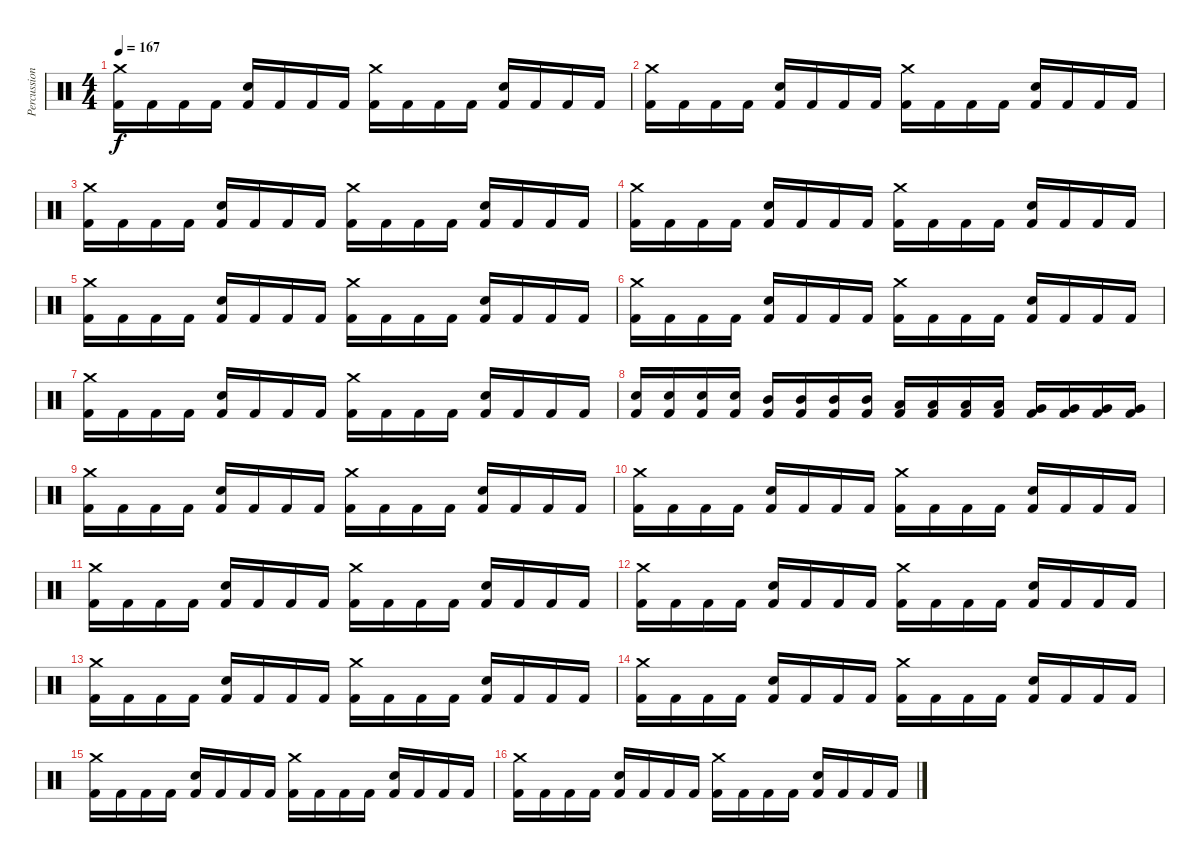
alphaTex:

\track ("Percussion" "Percussion") {instrument percussion}
\staff {score}
\articulation defaults
\ts (4 4)
\tempo 167
\clef neutral
\ks c
("Crash medium (hit)" "Kick (hit) 2").16{dy f} "Kick (hit) 2".16 "Kick (hit) 2".16 "Kick (hit) 2".16 ("Snare (hit) 2" "Kick (hit) 2").16 "Kick (hit) 2".16 "Kick (hit) 2".16 "Kick (hit) 2".16 ("Crash medium (hit)" "Kick (hit) 2").16 "Kick (hit) 2".16 "Kick (hit) 2".16 "Kick (hit) 2".16 ("Snare (hit) 2" "Kick (hit) 2").16 "Kick (hit) 2".16 "Kick (hit) 2".16 "Kick (hit) 2".16 |
("Crash medium (hit)" "Kick (hit) 2").16 "Kick (hit) 2".16 "Kick (hit) 2".16 "Kick (hit) 2".16 ("Snare (hit) 2" "Kick (hit) 2").16 "Kick (hit) 2".16 "Kick (hit) 2".16 "Kick (hit) 2".16 ("Crash medium (hit)" "Kick (hit) 2").16 "Kick (hit) 2".16 "Kick (hit) 2".16 "Kick (hit) 2".16 ("Snare (hit) 2" "Kick (hit) 2").16 "Kick (hit) 2".16 "Kick (hit) 2".16 "Kick (hit) 2".16 |
("Crash medium (hit)" "Kick (hit) 2").16 "Kick (hit) 2".16 "Kick (hit) 2".16 "Kick (hit) 2".16 ("Snare (hit) 2" "Kick (hit) 2").16 "Kick (hit) 2".16 "Kick (hit) 2".16 "Kick (hit) 2".16 ("Crash medium (hit)" "Kick (hit) 2").16 "Kick (hit) 2".16 "Kick (hit) 2".16 "Kick (hit) 2".16 ("Snare (hit) 2" "Kick (hit) 2").16 "Kick (hit) 2".16 "Kick (hit) 2".16 "Kick (hit) 2".16 |
("Crash medium (hit)" "Kick (hit) 2").16 "Kick (hit) 2".16 "Kick (hit) 2".16 "Kick (hit) 2".16 ("Snare (hit) 2" "Kick (hit) 2").16 "Kick (hit) 2".16 "Kick (hit) 2".16 "Kick (hit) 2".16 ("Crash medium (hit)" "Kick (hit) 2").16 "Kick (hit) 2".16 "Kick (hit) 2".16 "Kick (hit) 2".16 ("Snare (hit) 2" "Kick (hit) 2").16 "Kick (hit) 2".16 "Kick (hit) 2".16 "Kick (hit) 2".16 |
("Crash medium (hit)" "Kick (hit) 2").16 "Kick (hit) 2".16 "Kick (hit) 2".16 "Kick (hit) 2".16 ("Snare (hit) 2" "Kick (hit) 2").16 "Kick (hit) 2".16 "Kick (hit) 2".16 "Kick (hit) 2".16 ("Crash medium (hit)" "Kick (hit) 2").16 "Kick (hit) 2".16 "Kick (hit) 2".16 "Kick (hit) 2".16 ("Snare (hit) 2" "Kick (hit) 2").16 "Kick (hit) 2".16 "Kick (hit) 2".16 "Kick (hit) 2".16 |
("Crash medium (hit)" "Kick (hit) 2").16 "Kick (hit) 2".16 "Kick (hit) 2".16 "Kick (hit) 2".16 ("Snare (hit) 2" "Kick (hit) 2").16 "Kick (hit) 2".16 "Kick (hit) 2".16 "Kick (hit) 2".16 ("Crash medium (hit)" "Kick (hit) 2").16 "Kick (hit) 2".16 "Kick (hit) 2".16 "Kick (hit) 2".16 ("Snare (hit) 2" "Kick (hit) 2").16 "Kick (hit) 2".16 "Kick (hit) 2".16 "Kick (hit) 2".16 |
("Crash medium (hit)" "Kick (hit) 2").16 "Kick (hit) 2".16 "Kick (hit) 2".16 "Kick (hit) 2".16 ("Snare (hit) 2" "Kick (hit) 2").16 "Kick (hit) 2".16 "Kick (hit) 2".16 "Kick (hit) 2".16 ("Crash medium (hit)" "Kick (hit) 2").16 "Kick (hit) 2".16 "Kick (hit) 2".16 "Kick (hit) 2".16 ("Snare (hit) 2" "Kick (hit) 2").16 "Kick (hit) 2".16 "Kick (hit) 2".16 "Kick (hit) 2".16 |
("Snare (hit) 2" "Kick (hit) 2").16 ("Snare (hit) 2" "Kick (hit) 2").16 ("Snare (hit) 2" "Kick (hit) 2").16 ("Snare (hit) 2" "Kick (hit) 2").16 ("Mid Tom (hit)" "Kick (hit) 2").16 ("Mid Tom (hit)" "Kick (hit) 2").16 ("Mid Tom (hit)" "Kick (hit) 2").16 ("Mid Tom (hit)" "Kick (hit) 2").16 ("Low Tom (hit)" "Kick (hit) 2").16 ("Low Tom (hit)" "Kick (hit) 2").16 ("Low Tom (hit)" "Kick (hit) 2").16 ("Low Tom (hit)" "Kick (hit) 2").16 ("Very Low Tom (hit)" "Kick (hit) 2").16 ("Very Low Tom (hit)" "Kick (hit) 2").16 ("Very Low Tom (hit)" "Kick (hit) 2").16 ("Very Low Tom (hit)" "Kick (hit) 2").16 |
("Crash medium (hit)" "Kick (hit) 2").16 "Kick (hit) 2".16 "Kick (hit) 2".16 "Kick (hit) 2".16 ("Snare (hit) 2" "Kick (hit) 2").16 "Kick (hit) 2".16 "Kick (hit) 2".16 "Kick (hit) 2".16 ("Crash medium (hit)" "Kick (hit) 2").16 "Kick (hit) 2".16 "Kick (hit) 2".16 "Kick (hit) 2".16 ("Snare (hit) 2" "Kick (hit) 2").16 "Kick (hit) 2".16 "Kick (hit) 2".16 "Kick (hit) 2".16 |
("Crash medium (hit)" "Kick (hit) 2").16 "Kick (hit) 2".16 "Kick (hit) 2".16 "Kick (hit) 2".16 ("Snare (hit) 2" "Kick (hit) 2").16 "Kick (hit) 2".16 "Kick (hit) 2".16 "Kick (hit) 2".16 ("Crash medium (hit)" "Kick (hit) 2").16 "Kick (hit) 2".16 "Kick (hit) 2".16 "Kick (hit) 2".16 ("Snare (hit) 2" "Kick (hit) 2").16 "Kick (hit) 2".16 "Kick (hit) 2".16 "Kick (hit) 2".16 |
("Crash medium (hit)" "Kick (hit) 2").16 "Kick (hit) 2".16 "Kick (hit) 2".16 "Kick (hit) 2".16 ("Snare (hit) 2" "Kick (hit) 2").16 "Kick (hit) 2".16 "Kick (hit) 2".16 "Kick (hit) 2".16 ("Crash medium (hit)" "Kick (hit) 2").16 "Kick (hit) 2".16 "Kick (hit) 2".16 "Kick (hit) 2".16 ("Snare (hit) 2" "Kick (hit) 2").16 "Kick (hit) 2".16 "Kick (hit) 2".16 "Kick (hit) 2".16 |
("Crash medium (hit)" "Kick (hit) 2").16 "Kick (hit) 2".16 "Kick (hit) 2".16 "Kick (hit) 2".16 ("Snare (hit) 2" "Kick (hit) 2").16 "Kick (hit) 2".16 "Kick (hit) 2".16 "Kick (hit) 2".16 ("Crash medium (hit)" "Kick (hit) 2").16 "Kick (hit) 2".16 "Kick (hit) 2".16 "Kick (hit) 2".16 ("Snare (hit) 2" "Kick (hit) 2").16 "Kick (hit) 2".16 "Kick (hit) 2".16 "Kick (hit) 2".16 |
("Crash medium (hit)" "Kick (hit) 2").16 "Kick (hit) 2".16 "Kick (hit) 2".16 "Kick (hit) 2".16 ("Snare (hit) 2" "Kick (hit) 2").16 "Kick (hit) 2".16 "Kick (hit) 2".16 "Kick (hit) 2".16 ("Crash medium (hit)" "Kick (hit) 2").16 "Kick (hit) 2".16 "Kick (hit) 2".16 "Kick (hit) 2".16 ("Snare (hit) 2" "Kick (hit) 2").16 "Kick (hit) 2".16 "Kick (hit) 2".16 "Kick (hit) 2".16 |
("Crash medium (hit)" "Kick (hit) 2").16 "Kick (hit) 2".16 "Kick (hit) 2".16 "Kick (hit) 2".16 ("Snare (hit) 2" "Kick (hit) 2").16 "Kick (hit) 2".16 "Kick (hit) 2".16 "Kick (hit) 2".16 ("Crash medium (hit)" "Kick (hit) 2").16 "Kick (hit) 2".16 "Kick (hit) 2".16 "Kick (hit) 2".16 ("Snare (hit) 2" "Kick (hit) 2").16 "Kick (hit) 2".16 "Kick (hit) 2".16 "Kick (hit) 2".16 |
("Crash medium (hit)" "Kick (hit) 2").16 "Kick (hit) 2".16 "Kick (hit) 2".16 "Kick (hit) 2".16 ("Snare (hit) 2" "Kick (hit) 2").16 "Kick (hit) 2".16 "Kick (hit) 2".16 "Kick (hit) 2".16 ("Crash medium (hit)" "Kick (hit) 2").16 "Kick (hit) 2".16 "Kick (hit) 2".16 "Kick (hit) 2".16 ("Snare (hit) 2" "Kick (hit) 2").16 "Kick (hit) 2".16 "Kick (hit) 2".16 "Kick (hit) 2".16 |
("Crash medium (hit)" "Kick (hit) 2").16 "Kick (hit) 2".16 "Kick (hit) 2".16 "Kick (hit) 2".16 ("Snare (hit) 2" "Kick (hit) 2").16 "Kick (hit) 2".16 "Kick (hit) 2".16 "Kick (hit) 2".16 ("Crash medium (hit)" "Kick (hit) 2").16 "Kick (hit) 2".16 "Kick (hit) 2".16 "Kick (hit) 2".16 ("Snare (hit) 2" "Kick (hit) 2").16 "Kick (hit) 2".16 "Kick (hit) 2".16 "Kick (hit) 2".16
